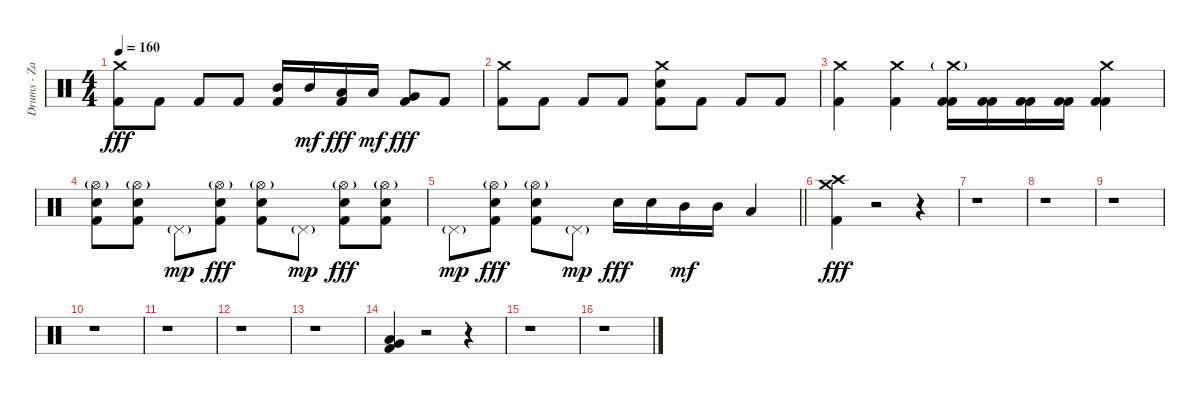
\track ("Drums - Zac Farro" "Drums - Za") {instrument percussion}
\staff {score}
\articulation defaults
\ts (4 4)
\tempo 160
\clef neutral
\ks c
("Crash medium (hit)" "Kick (hit) 2").8{dy fff} "Kick (hit) 2".8 "Kick (hit) 2".8 "Kick (hit) 2".8 ("Mid Tom (hit)" "Kick (hit) 2").16 "Mid Tom (hit)".16{dy mf} ("Low Tom (hit)" "Kick (hit) 2").16{dy fff} "Low Tom (hit)".16{dy mf} ("Very Low Tom (hit)" "Kick (hit) 2").8{dy fff} "Kick (hit) 2".8 |
("Crash medium (hit)" "Kick (hit) 2").8 "Kick (hit) 2".8 "Kick (hit) 2".8 "Kick (hit) 2".8 ("Crash medium (hit)" "Electric Snare (hit)" "Kick (hit) 2").8 "Kick (hit) 2".8 "Kick (hit) 2".8 "Kick (hit) 2".8 |
("Crash medium (hit)" "Kick (hit) 2").4 ("Crash medium (hit)" "Kick (hit) 2").4 ("Crash medium (hit)"{g} "Kick (hit) 2" "Kick (hit) 2").16 ("Kick (hit) 2" "Kick (hit) 2").16 ("Kick (hit) 2" "Kick (hit) 2").16 ("Kick (hit) 2" "Kick (hit) 2").16 ("Crash medium (hit)" "Kick (hit) 2" "Kick (hit) 2").4 |
("Hi-Hat (open)"{g} "Electric Snare (hit)" "Kick (hit) 2").8 ("Hi-Hat (open)"{g} "Electric Snare (hit)" "Kick (hit) 2").8 "Pedal Hi-Hat (hit)"{g}.8{dy mp} ("Hi-Hat (open)"{g} "Electric Snare (hit)" "Kick (hit) 2").8{dy fff} ("Hi-Hat (open)"{g} "Electric Snare (hit)" "Kick (hit) 2").8 "Pedal Hi-Hat (hit)"{g}.8{dy mp} ("Hi-Hat (open)"{g} "Electric Snare (hit)" "Kick (hit) 2").8{dy fff} ("Hi-Hat (open)"{g} "Electric Snare (hit)" "Kick (hit) 2").8 |
\barLineRight lightlight "Pedal Hi-Hat (hit)"{g}.8{dy mp}
("Hi-Hat (open)"{g} "Electric Snare (hit)" "Kick (hit) 2").8{dy fff} ("Hi-Hat (open)"{g} "Electric Snare (hit)" "Kick (hit) 2").8 "Pedal Hi-Hat (hit)"{g}.8{dy mp} "Electric Snare (hit)".16{dy fff} "Electric Snare (hit)".16 "Mid Tom (hit)".16{dy mf} "Mid Tom (hit)".16 "Low Tom (hit)".4 |
("Crash high (hit)" "Crash medium (hit)" "Kick (hit) 2").4{dy fff} r.2 r.4 |
r.1 |
r.1 |
r.1 |
r.1 |
r.1 |
r.1 |
r.1 |
("Low Tom (hit)" "Very Low Tom (hit)" "Kick (hit) 2").4 r.2 r.4 |
r.1 |
r.1
